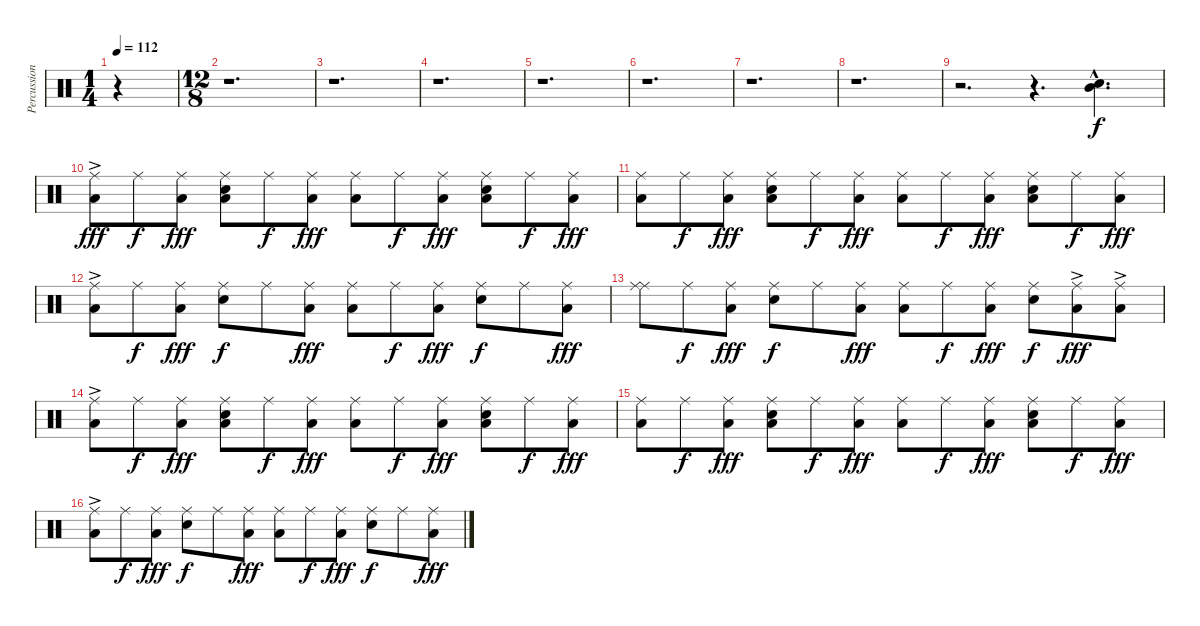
\track ("Percussion" "Percussion") {instrument percussion}
\staff {score}
\articulation defaults
\ts (1 4)
\tempo 112
\clef neutral
\ks c
r.4{dy f} |
\ts (12 8)
r.1{d} |
r.1{d} |
r.1{d} |
r.1{d} |
r.1{d} |
r.1{d} |
r.1{d} |
r.2{d} r.4{d} ("Snare (hit) 2"{hac} "Mid Tom (hit)"{hac}).4{d} |
("Ride (middle)"{ac} "Low Floor Tom (hit)").8{dy fff} "Ride (middle)".8{dy f} ("Ride (middle)" "Low Floor Tom (hit)").8{dy fff} ("Ride (middle)" "Snare (hit) 2" "Low Floor Tom (hit)").8 "Ride (middle)".8{dy f} ("Ride (middle)" "Low Floor Tom (hit)").8{dy fff} ("Ride (middle)" "Low Floor Tom (hit)").8 "Ride (middle)".8{dy f} ("Ride (middle)" "Low Floor Tom (hit)").8{dy fff} ("Ride (middle)" "Snare (hit) 2" "Low Floor Tom (hit)").8 "Ride (middle)".8{dy f} ("Ride (middle)" "Low Floor Tom (hit)").8{dy fff} |
("Ride (middle)" "Low Floor Tom (hit)").8 "Ride (middle)".8{dy f} ("Ride (middle)" "Low Floor Tom (hit)").8{dy fff} ("Ride (middle)" "Snare (hit) 2" "Low Floor Tom (hit)").8 "Ride (middle)".8{dy f} ("Ride (middle)" "Low Floor Tom (hit)").8{dy fff} ("Ride (middle)" "Low Floor Tom (hit)").8 "Ride (middle)".8{dy f} ("Ride (middle)" "Low Floor Tom (hit)").8{dy fff} ("Ride (middle)" "Snare (hit) 2" "Low Floor Tom (hit)").8 "Ride (middle)".8{dy f} ("Ride (middle)" "Low Floor Tom (hit)").8{dy fff} |
("Ride (middle)"{ac} "Low Floor Tom (hit)").8 "Ride (middle)".8{dy f} ("Ride (middle)" "Low Floor Tom (hit)").8{dy fff} ("Ride (middle)" "Snare (hit) 2").8{dy f} "Ride (middle)".8 ("Ride (middle)" "Low Floor Tom (hit)").8{dy fff} ("Ride (middle)" "Low Floor Tom (hit)").8 "Ride (middle)".8{dy f} ("Ride (middle)" "Low Floor Tom (hit)").8{dy fff} ("Ride (middle)" "Snare (hit) 2").8{dy f} "Ride (middle)".8 ("Ride (middle)" "Low Floor Tom (hit)").8{dy fff} |
("Ride (middle)" "Ride (middle)").8 "Ride (middle)".8{dy f} ("Ride (middle)" "Low Floor Tom (hit)").8{dy fff} ("Ride (middle)" "Snare (hit) 2").8{dy f} "Ride (middle)".8 ("Ride (middle)" "Low Floor Tom (hit)").8{dy fff} ("Ride (middle)" "Low Floor Tom (hit)").8 "Ride (middle)".8{dy f} ("Ride (middle)" "Low Floor Tom (hit)").8{dy fff} ("Ride (middle)" "Snare (hit) 2").8{dy f} ("Ride (middle)"{ac} "Low Floor Tom (hit)").8{dy fff} ("Ride (middle)"{ac} "Low Floor Tom (hit)").8 |
("Ride (middle)"{ac} "Low Floor Tom (hit)").8 "Ride (middle)".8{dy f} ("Ride (middle)" "Low Floor Tom (hit)").8{dy fff} ("Ride (middle)" "Snare (hit) 2" "Low Floor Tom (hit)").8 "Ride (middle)".8{dy f} ("Ride (middle)" "Low Floor Tom (hit)").8{dy fff} ("Ride (middle)" "Low Floor Tom (hit)").8 "Ride (middle)".8{dy f} ("Ride (middle)" "Low Floor Tom (hit)").8{dy fff} ("Ride (middle)" "Snare (hit) 2" "Low Floor Tom (hit)").8 "Ride (middle)".8{dy f} ("Ride (middle)" "Low Floor Tom (hit)").8{dy fff} |
("Ride (middle)" "Low Floor Tom (hit)").8 "Ride (middle)".8{dy f} ("Ride (middle)" "Low Floor Tom (hit)").8{dy fff} ("Ride (middle)" "Snare (hit) 2" "Low Floor Tom (hit)").8 "Ride (middle)".8{dy f} ("Ride (middle)" "Low Floor Tom (hit)").8{dy fff} ("Ride (middle)" "Low Floor Tom (hit)").8 "Ride (middle)".8{dy f} ("Ride (middle)" "Low Floor Tom (hit)").8{dy fff} ("Ride (middle)" "Snare (hit) 2" "Low Floor Tom (hit)").8 "Ride (middle)".8{dy f} ("Ride (middle)" "Low Floor Tom (hit)").8{dy fff} |
("Ride (middle)"{ac} "Low Floor Tom (hit)").8 "Ride (middle)".8{dy f} ("Ride (middle)" "Low Floor Tom (hit)").8{dy fff} ("Ride (middle)" "Snare (hit) 2").8{dy f} "Ride (middle)".8 ("Ride (middle)" "Low Floor Tom (hit)").8{dy fff} ("Ride (middle)" "Low Floor Tom (hit)").8 "Ride (middle)".8{dy f} ("Ride (middle)" "Low Floor Tom (hit)").8{dy fff} ("Ride (middle)" "Snare (hit) 2").8{dy f} "Ride (middle)".8 ("Ride (middle)" "Low Floor Tom (hit)").8{dy fff}
